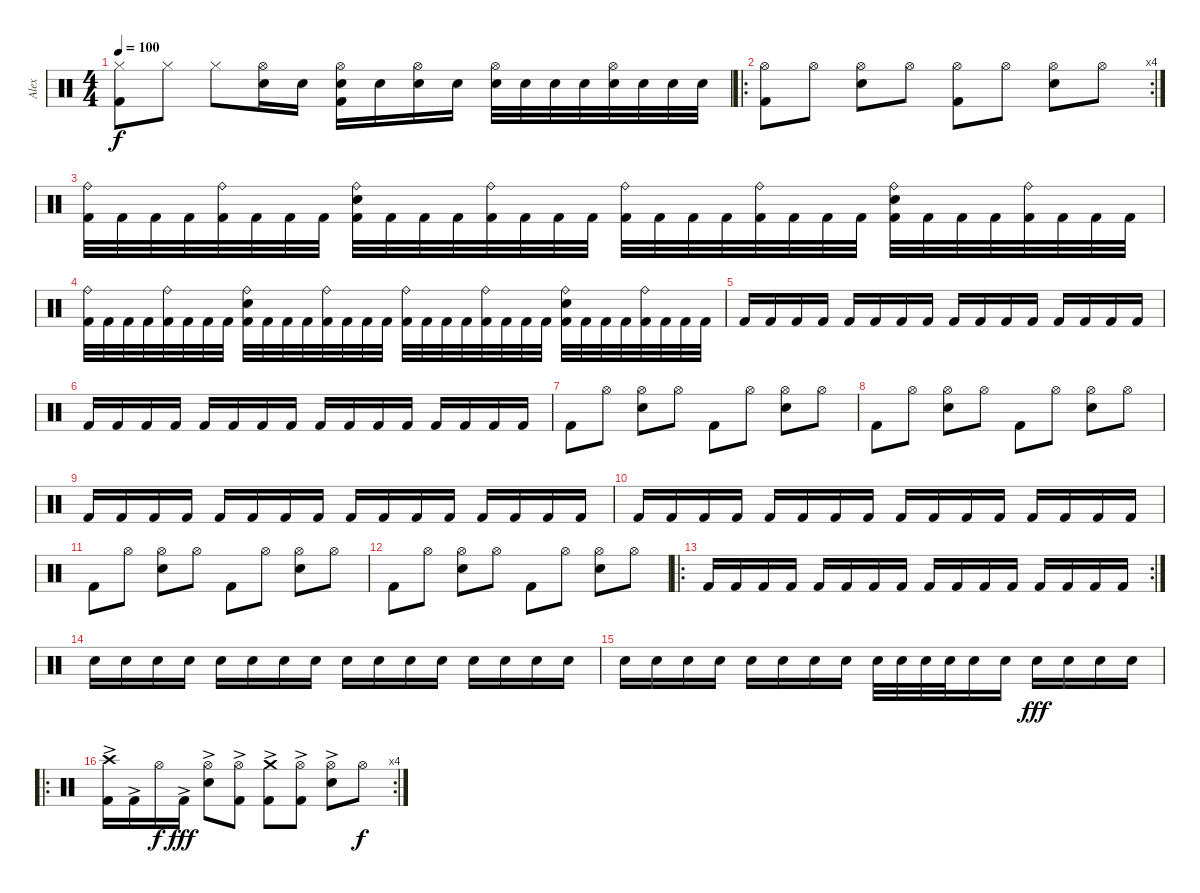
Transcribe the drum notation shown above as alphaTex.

\track ("Alex" "Alex") {instrument percussion}
\staff {score}
\articulation defaults
\ts (4 4)
\tempo 100
\clef neutral
\ks c
("Hi-Hat (closed)" "Kick (hit) 2").8{dy f} "Hi-Hat (closed)".8 "Hi-Hat (closed)".8 ("Electric Snare (hit)" "Hi-Hat (open)").16 "Electric Snare (hit)".16 ("Electric Snare (hit)" "Hi-Hat (open)" "Kick (hit) 2").16 "Electric Snare (hit)".16 ("Electric Snare (hit)" "Hi-Hat (open)").16 "Electric Snare (hit)".16 ("Electric Snare (hit)" "Hi-Hat (open)").32 "Electric Snare (hit)".32 "Electric Snare (hit)".32 "Electric Snare (hit)".32 ("Electric Snare (hit)" "Hi-Hat (open)").32 "Electric Snare (hit)".32 "Electric Snare (hit)".32 "Electric Snare (hit)".32 |
\ro
\rc 4
("Hi-Hat (open)" "Kick (hit) 2").8 "Hi-Hat (open)".8 ("Electric Snare (hit)" "Hi-Hat (open)").8 "Hi-Hat (open)".8 ("Hi-Hat (open)" "Kick (hit) 2").8 "Hi-Hat (open)".8 ("Electric Snare (hit)" "Hi-Hat (open)").8 "Hi-Hat (open)".8 |
("Ride (bell)" "Kick (hit) 2").32 "Kick (hit) 2".32 "Kick (hit) 2".32 "Kick (hit) 2".32 ("Ride (bell)" "Kick (hit) 2").32 "Kick (hit) 2".32 "Kick (hit) 2".32 "Kick (hit) 2".32 ("Electric Snare (hit)" "Ride (bell)" "Kick (hit) 2").32 "Kick (hit) 2".32 "Kick (hit) 2".32 "Kick (hit) 2".32 ("Ride (bell)" "Kick (hit) 2").32 "Kick (hit) 2".32 "Kick (hit) 2".32 "Kick (hit) 2".32 ("Ride (bell)" "Kick (hit) 2").32 "Kick (hit) 2".32 "Kick (hit) 2".32 "Kick (hit) 2".32 ("Ride (bell)" "Kick (hit) 2").32 "Kick (hit) 2".32 "Kick (hit) 2".32 "Kick (hit) 2".32 ("Electric Snare (hit)" "Ride (bell)" "Kick (hit) 2").32 "Kick (hit) 2".32 "Kick (hit) 2".32 "Kick (hit) 2".32 ("Ride (bell)" "Kick (hit) 2").32 "Kick (hit) 2".32 "Kick (hit) 2".32 "Kick (hit) 2".32 |
("Ride (bell)" "Kick (hit) 2").32 "Kick (hit) 2".32 "Kick (hit) 2".32 "Kick (hit) 2".32 ("Ride (bell)" "Kick (hit) 2").32 "Kick (hit) 2".32 "Kick (hit) 2".32 "Kick (hit) 2".32 ("Electric Snare (hit)" "Ride (bell)" "Kick (hit) 2").32 "Kick (hit) 2".32 "Kick (hit) 2".32 "Kick (hit) 2".32 ("Ride (bell)" "Kick (hit) 2").32 "Kick (hit) 2".32 "Kick (hit) 2".32 "Kick (hit) 2".32 ("Ride (bell)" "Kick (hit) 2").32 "Kick (hit) 2".32 "Kick (hit) 2".32 "Kick (hit) 2".32 ("Ride (bell)" "Kick (hit) 2").32 "Kick (hit) 2".32 "Kick (hit) 2".32 "Kick (hit) 2".32 ("Electric Snare (hit)" "Ride (bell)" "Kick (hit) 2").32 "Kick (hit) 2".32 "Kick (hit) 2".32 "Kick (hit) 2".32 ("Ride (bell)" "Kick (hit) 2").32 "Kick (hit) 2".32 "Kick (hit) 2".32 "Kick (hit) 2".32 |
"Kick (hit) 2".16 "Kick (hit) 2".16 "Kick (hit) 2".16 "Kick (hit) 2".16 "Kick (hit) 2".16 "Kick (hit) 2".16 "Kick (hit) 2".16 "Kick (hit) 2".16 "Kick (hit) 2".16 "Kick (hit) 2".16 "Kick (hit) 2".16 "Kick (hit) 2".16 "Kick (hit) 2".16 "Kick (hit) 2".16 "Kick (hit) 2".16 "Kick (hit) 2".16 |
"Kick (hit) 2".16 "Kick (hit) 2".16 "Kick (hit) 2".16 "Kick (hit) 2".16 "Kick (hit) 2".16 "Kick (hit) 2".16 "Kick (hit) 2".16 "Kick (hit) 2".16 "Kick (hit) 2".16 "Kick (hit) 2".16 "Kick (hit) 2".16 "Kick (hit) 2".16 "Kick (hit) 2".16 "Kick (hit) 2".16 "Kick (hit) 2".16 "Kick (hit) 2".16 |
"Kick (hit) 2".8 "Hi-Hat (open)".8 ("Electric Snare (hit)" "Hi-Hat (open)").8 "Hi-Hat (open)".8 "Kick (hit) 2".8 "Hi-Hat (open)".8 ("Electric Snare (hit)" "Hi-Hat (open)").8 "Hi-Hat (open)".8 |
"Kick (hit) 2".8 "Hi-Hat (open)".8 ("Electric Snare (hit)" "Hi-Hat (open)").8 "Hi-Hat (open)".8 "Kick (hit) 2".8 "Hi-Hat (open)".8 ("Electric Snare (hit)" "Hi-Hat (open)").8 "Hi-Hat (open)".8 |
"Kick (hit) 2".16 "Kick (hit) 2".16 "Kick (hit) 2".16 "Kick (hit) 2".16 "Kick (hit) 2".16 "Kick (hit) 2".16 "Kick (hit) 2".16 "Kick (hit) 2".16 "Kick (hit) 2".16 "Kick (hit) 2".16 "Kick (hit) 2".16 "Kick (hit) 2".16 "Kick (hit) 2".16 "Kick (hit) 2".16 "Kick (hit) 2".16 "Kick (hit) 2".16 |
"Kick (hit) 2".16 "Kick (hit) 2".16 "Kick (hit) 2".16 "Kick (hit) 2".16 "Kick (hit) 2".16 "Kick (hit) 2".16 "Kick (hit) 2".16 "Kick (hit) 2".16 "Kick (hit) 2".16 "Kick (hit) 2".16 "Kick (hit) 2".16 "Kick (hit) 2".16 "Kick (hit) 2".16 "Kick (hit) 2".16 "Kick (hit) 2".16 "Kick (hit) 2".16 |
"Kick (hit) 2".8 "Hi-Hat (open)".8 ("Electric Snare (hit)" "Hi-Hat (open)").8 "Hi-Hat (open)".8 "Kick (hit) 2".8 "Hi-Hat (open)".8 ("Electric Snare (hit)" "Hi-Hat (open)").8 "Hi-Hat (open)".8 |
"Kick (hit) 2".8 "Hi-Hat (open)".8 ("Electric Snare (hit)" "Hi-Hat (open)").8 "Hi-Hat (open)".8 "Kick (hit) 2".8 "Hi-Hat (open)".8 ("Electric Snare (hit)" "Hi-Hat (open)").8 "Hi-Hat (open)".8 |
\ro
\rc 2 "Kick (hit) 2".16{volume 8} "Kick (hit) 2".16 "Kick (hit) 2".16 "Kick (hit) 2".16 "Kick (hit) 2".16 "Kick (hit) 2".16 "Kick (hit) 2".16 "Kick (hit) 2".16 "Kick (hit) 2".16 "Kick (hit) 2".16 "Kick (hit) 2".16 "Kick (hit) 2".16 "Kick (hit) 2".16 "Kick (hit) 2".16 "Kick (hit) 2".16 "Kick (hit) 2".16
|
"Electric Snare (hit)".16{volume 9} "Electric Snare (hit)".16 "Electric Snare (hit)".16 "Electric Snare (hit)".16 "Electric Snare (hit)".16{volume 10} "Electric Snare (hit)".16 "Electric Snare (hit)".16 "Electric Snare (hit)".16 "Electric Snare (hit)".16{volume 11} "Electric Snare (hit)".16 "Electric Snare (hit)".16 "Electric Snare (hit)".16 "Electric Snare (hit)".16{volume 12} "Electric Snare (hit)".16 "Electric Snare (hit)".16 "Electric Snare (hit)".16 |
"Electric Snare (hit)".16{volume 13} "Electric Snare (hit)".16 "Electric Snare (hit)".16 "Electric Snare (hit)".16 "Electric Snare (hit)".16{volume 14} "Electric Snare (hit)".16 "Electric Snare (hit)".16 "Electric Snare (hit)".16 "Electric Snare (hit)".32{volume 15} "Electric Snare (hit)".32 "Electric Snare (hit)".32 "Electric Snare (hit)".32 "Electric Snare (hit)".16 "Electric Snare (hit)".16 "Electric Snare (hit)".16{dy fff volume 16} "Electric Snare (hit)".16 "Electric Snare (hit)".16 "Electric Snare (hit)".16 |
\ro
\rc 4
("Crash high (hit)" "Kick (hit) 2"{ac}).16 "Kick (hit) 2"{ac}.16 "Hi-Hat (open)".16{dy f} "Kick (hit) 2"{ac}.16{dy fff} ("Electric Snare (hit)"{ac} "Hi-Hat (open)").8 ("Hi-Hat (open)" "Kick (hit) 2"{ac}).8 ("Crash medium (hit)" "Kick (hit) 2"{ac}).8 ("Hi-Hat (open)" "Kick (hit) 2"{ac}).8 ("Electric Snare (hit)"{ac} "Hi-Hat (open)").8 "Hi-Hat (open)".8{dy f}
